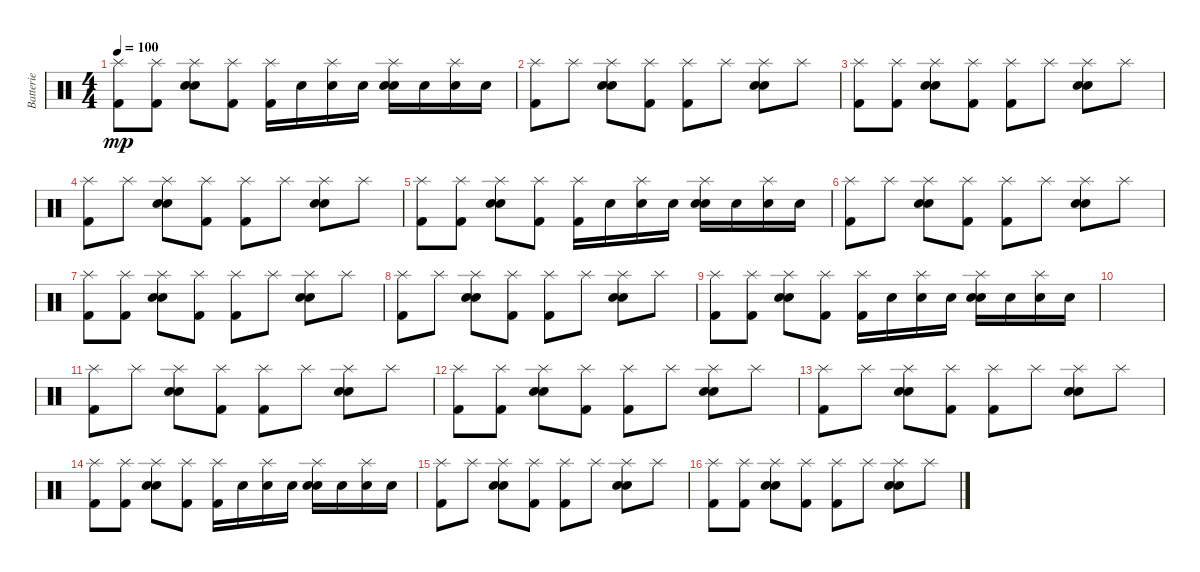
\track ("Batterie" "Batterie") {instrument percussion}
\staff {score}
\articulation defaults
\ts (4 4)
\tempo 100
\clef neutral
\ks c
("Kick (hit) 2" "Splash (hit)").8{dy mp} ("Kick (hit) 2" "Splash (hit)").8 ("Hand Clap (hit)" "Electric Snare (hit)" "Splash (hit)").8 ("Kick (hit) 2" "Splash (hit)").8 ("Kick (hit) 2" "Splash (hit)").16 "Electric Snare (hit)".16 ("Electric Snare (hit)" "Splash (hit)").16 "Electric Snare (hit)".16 ("Hand Clap (hit)" "Electric Snare (hit)" "Splash (hit)").16 "Electric Snare (hit)".16 ("Electric Snare (hit)" "Splash (hit)").16 "Electric Snare (hit)".16 |
("Kick (hit) 2" "Splash (hit)").8 "Splash (hit)".8 ("Hand Clap (hit)" "Electric Snare (hit)" "Splash (hit)").8 ("Kick (hit) 2" "Splash (hit)").8 ("Kick (hit) 2" "Splash (hit)").8 "Splash (hit)".8 ("Hand Clap (hit)" "Electric Snare (hit)" "Splash (hit)").8 "Splash (hit)".8 |
("Kick (hit) 2" "Splash (hit)").8 ("Kick (hit) 2" "Splash (hit)").8 ("Hand Clap (hit)" "Electric Snare (hit)" "Splash (hit)").8 ("Kick (hit) 2" "Splash (hit)").8 ("Kick (hit) 2" "Splash (hit)").8 "Splash (hit)".8 ("Hand Clap (hit)" "Electric Snare (hit)" "Splash (hit)").8 "Splash (hit)".8 |
("Kick (hit) 2" "Splash (hit)").8 "Splash (hit)".8 ("Hand Clap (hit)" "Electric Snare (hit)" "Splash (hit)").8 ("Kick (hit) 2" "Splash (hit)").8 ("Kick (hit) 2" "Splash (hit)").8 "Splash (hit)".8 ("Hand Clap (hit)" "Electric Snare (hit)" "Splash (hit)").8 "Splash (hit)".8 |
("Kick (hit) 2" "Splash (hit)").8 ("Kick (hit) 2" "Splash (hit)").8 ("Hand Clap (hit)" "Electric Snare (hit)" "Splash (hit)").8 ("Kick (hit) 2" "Splash (hit)").8 ("Kick (hit) 2" "Splash (hit)").16 "Electric Snare (hit)".16 ("Electric Snare (hit)" "Splash (hit)").16 "Electric Snare (hit)".16 ("Hand Clap (hit)" "Electric Snare (hit)" "Splash (hit)").16 "Electric Snare (hit)".16 ("Electric Snare (hit)" "Splash (hit)").16 "Electric Snare (hit)".16 |
("Kick (hit) 2" "Splash (hit)").8 "Splash (hit)".8 ("Hand Clap (hit)" "Electric Snare (hit)" "Splash (hit)").8 ("Kick (hit) 2" "Splash (hit)").8 ("Kick (hit) 2" "Splash (hit)").8 "Splash (hit)".8 ("Hand Clap (hit)" "Electric Snare (hit)" "Splash (hit)").8 "Splash (hit)".8 |
("Kick (hit) 2" "Splash (hit)").8 ("Kick (hit) 2" "Splash (hit)").8 ("Hand Clap (hit)" "Electric Snare (hit)" "Splash (hit)").8 ("Kick (hit) 2" "Splash (hit)").8 ("Kick (hit) 2" "Splash (hit)").8 "Splash (hit)".8 ("Hand Clap (hit)" "Electric Snare (hit)" "Splash (hit)").8 "Splash (hit)".8 |
("Kick (hit) 2" "Splash (hit)").8 "Splash (hit)".8 ("Hand Clap (hit)" "Electric Snare (hit)" "Splash (hit)").8 ("Kick (hit) 2" "Splash (hit)").8 ("Kick (hit) 2" "Splash (hit)").8 "Splash (hit)".8 ("Hand Clap (hit)" "Electric Snare (hit)" "Splash (hit)").8 "Splash (hit)".8 |
("Kick (hit) 2" "Splash (hit)").8 ("Kick (hit) 2" "Splash (hit)").8 ("Hand Clap (hit)" "Electric Snare (hit)" "Splash (hit)").8 ("Kick (hit) 2" "Splash (hit)").8 ("Kick (hit) 2" "Splash (hit)").16 "Electric Snare (hit)".16 ("Electric Snare (hit)" "Splash (hit)").16 "Electric Snare (hit)".16 ("Hand Clap (hit)" "Electric Snare (hit)" "Splash (hit)").16 "Electric Snare (hit)".16 ("Electric Snare (hit)" "Splash (hit)").16 "Electric Snare (hit)".16 |
|
("Kick (hit) 2" "Splash (hit)").8 "Splash (hit)".8 ("Hand Clap (hit)" "Electric Snare (hit)" "Splash (hit)").8 ("Kick (hit) 2" "Splash (hit)").8 ("Kick (hit) 2" "Splash (hit)").8 "Splash (hit)".8 ("Hand Clap (hit)" "Electric Snare (hit)" "Splash (hit)").8 "Splash (hit)".8 |
("Kick (hit) 2" "Splash (hit)").8 ("Kick (hit) 2" "Splash (hit)").8 ("Hand Clap (hit)" "Electric Snare (hit)" "Splash (hit)").8 ("Kick (hit) 2" "Splash (hit)").8 ("Kick (hit) 2" "Splash (hit)").8 "Splash (hit)".8 ("Hand Clap (hit)" "Electric Snare (hit)" "Splash (hit)").8 "Splash (hit)".8 |
("Kick (hit) 2" "Splash (hit)").8 "Splash (hit)".8 ("Hand Clap (hit)" "Electric Snare (hit)" "Splash (hit)").8 ("Kick (hit) 2" "Splash (hit)").8 ("Kick (hit) 2" "Splash (hit)").8 "Splash (hit)".8 ("Hand Clap (hit)" "Electric Snare (hit)" "Splash (hit)").8 "Splash (hit)".8 |
("Kick (hit) 2" "Splash (hit)").8 ("Kick (hit) 2" "Splash (hit)").8 ("Hand Clap (hit)" "Electric Snare (hit)" "Splash (hit)").8 ("Kick (hit) 2" "Splash (hit)").8 ("Kick (hit) 2" "Splash (hit)").16 "Electric Snare (hit)".16 ("Electric Snare (hit)" "Splash (hit)").16 "Electric Snare (hit)".16 ("Hand Clap (hit)" "Electric Snare (hit)" "Splash (hit)").16 "Electric Snare (hit)".16 ("Electric Snare (hit)" "Splash (hit)").16 "Electric Snare (hit)".16 |
("Kick (hit) 2" "Splash (hit)").8 "Splash (hit)".8 ("Hand Clap (hit)" "Electric Snare (hit)" "Splash (hit)").8 ("Kick (hit) 2" "Splash (hit)").8 ("Kick (hit) 2" "Splash (hit)").8 "Splash (hit)".8 ("Hand Clap (hit)" "Electric Snare (hit)" "Splash (hit)").8 "Splash (hit)".8 |
("Kick (hit) 2" "Splash (hit)").8 ("Kick (hit) 2" "Splash (hit)").8 ("Hand Clap (hit)" "Electric Snare (hit)" "Splash (hit)").8 ("Kick (hit) 2" "Splash (hit)").8 ("Kick (hit) 2" "Splash (hit)").8 "Splash (hit)".8 ("Hand Clap (hit)" "Electric Snare (hit)" "Splash (hit)").8 "Splash (hit)".8
